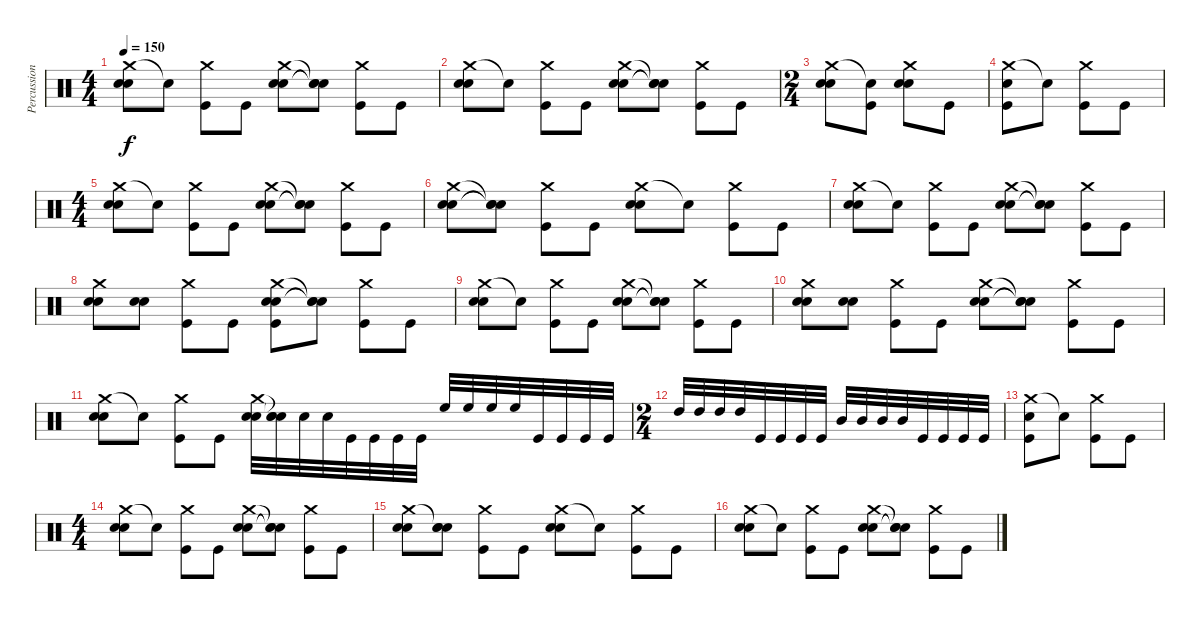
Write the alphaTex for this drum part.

\track ("Percussions" "Percussion") {instrument percussion}
\staff {score}
\articulation defaults
\ts (4 4)
\tempo 150
\clef neutral
\ks c
("Crash medium (hit)" "Electric Snare (hit)" "Electric Snare (hit)").8{dy f} "Snare (hit)"{t}.8 ("Crash medium (hit)" "Kick (hit)").8 "Kick (hit)".8 ("Crash medium (hit)" "Electric Snare (hit)" "Electric Snare (hit)").8 ("Snare (hit)"{t} "Snare (hit)"{t} "Snare (hit)"{t}).8 ("Crash medium (hit)" "Kick (hit)").8 "Kick (hit)".8 |
("Crash medium (hit)" "Electric Snare (hit)" "Electric Snare (hit)").8 "Snare (hit)"{t}.8 ("Crash medium (hit)" "Kick (hit)").8 "Kick (hit)".8 ("Crash medium (hit)" "Electric Snare (hit)" "Electric Snare (hit)").8 ("Snare (hit)"{t} "Snare (hit)"{t} "Snare (hit)"{t}).8 ("Crash medium (hit)" "Kick (hit)").8 "Kick (hit)".8 |
\ts (2 4)
("Crash medium (hit)" "Electric Snare (hit)" "Electric Snare (hit)").8 ("Snare (hit)"{t} "Kick (hit)").8 ("Crash medium (hit)" "Electric Snare (hit)" "Electric Snare (hit)").8 "Kick (hit)".8 |
("Crash medium (hit)" "Electric Snare (hit)" "Kick (hit)").8 "Snare (hit)"{t}.8 ("Crash medium (hit)" "Kick (hit)").8 "Kick (hit)".8 |
\ts (4 4)
("Crash medium (hit)" "Electric Snare (hit)" "Electric Snare (hit)").8 "Snare (hit)"{t}.8 ("Crash medium (hit)" "Kick (hit)").8 "Kick (hit)".8 ("Crash medium (hit)" "Electric Snare (hit)" "Electric Snare (hit)").8 ("Snare (hit)"{t} "Snare (hit)"{t} "Snare (hit)"{t}).8 ("Crash medium (hit)" "Kick (hit)").8 "Kick (hit)".8 |
("Crash medium (hit)" "Electric Snare (hit)" "Electric Snare (hit)").8 ("Snare (hit)"{t} "Electric Snare (hit)"{t} "Electric Snare (hit)"{t}).8 ("Crash medium (hit)" "Kick (hit)").8 "Kick (hit)".8 ("Crash medium (hit)" "Electric Snare (hit)" "Electric Snare (hit)").8 "Snare (hit)"{t}.8 ("Crash medium (hit)" "Kick (hit)").8 "Kick (hit)".8 |
("Crash medium (hit)" "Electric Snare (hit)" "Electric Snare (hit)").8 "Snare (hit)"{t}.8 ("Crash medium (hit)" "Kick (hit)").8 "Kick (hit)".8 ("Crash medium (hit)" "Electric Snare (hit)" "Electric Snare (hit)").8 ("Snare (hit)"{t} "Snare (hit)"{t} "Snare (hit)"{t}).8 ("Crash medium (hit)" "Kick (hit)").8 "Kick (hit)".8 |
("Crash medium (hit)" "Electric Snare (hit)" "Electric Snare (hit)").8 ("Electric Snare (hit)" "Electric Snare (hit)").8 ("Crash medium (hit)" "Kick (hit)").8 "Kick (hit)".8 ("Crash medium (hit)" "Electric Snare (hit)" "Electric Snare (hit)" "Kick (hit)").8 ("Snare (hit)"{t} "Snare (hit)"{t} "Snare (hit)"{t}).8 ("Crash medium (hit)" "Kick (hit)").8 "Kick (hit)".8 |
("Crash medium (hit)" "Electric Snare (hit)" "Electric Snare (hit)").8 "Snare (hit)"{t}.8 ("Crash medium (hit)" "Kick (hit)").8 "Kick (hit)".8 ("Crash medium (hit)" "Electric Snare (hit)" "Electric Snare (hit)").8 ("Snare (hit)"{t} "Snare (hit)"{t} "Snare (hit)"{t}).8 ("Crash medium (hit)" "Kick (hit)").8 "Kick (hit)".8 |
("Crash medium (hit)" "Electric Snare (hit)" "Electric Snare (hit)").8 ("Electric Snare (hit)" "Electric Snare (hit)").8 ("Crash medium (hit)" "Kick (hit)").8 "Kick (hit)".8 ("Crash medium (hit)" "Electric Snare (hit)" "Electric Snare (hit)").8 ("Snare (hit)"{t} "Snare (hit)"{t} "Snare (hit)"{t}).8 ("Crash medium (hit)" "Kick (hit)").8 "Kick (hit)".8 |
("Crash medium (hit)" "Electric Snare (hit)" "Electric Snare (hit)").8 "Snare (hit)"{t}.8 ("Crash medium (hit)" "Kick (hit)").8 "Kick (hit)".8 ("Crash medium (hit)" "Electric Snare (hit)" "Electric Snare (hit)").32 ("Snare (hit)"{t} "Snare (hit)"{t} "Electric Snare (hit)").32 "Electric Snare (hit)".32 "Electric Snare (hit)".32 "Kick (hit)".32{volume 16} "Kick (hit)".32 "Kick (hit)".32 "Kick (hit)".32 "High Floor Tom (hit)".32{volume 12} "High Floor Tom (hit)".32 "High Floor Tom (hit)".32 "High Floor Tom (hit)".32 "Kick (hit)".32 "Kick (hit)".32 "Kick (hit)".32 "Kick (hit)".32 |
\ts (2 4)
"High Tom (hit)".32{volume 12} "High Tom (hit)".32 "High Tom (hit)".32 "High Tom (hit)".32 "Kick (hit)".32{volume 16} "Kick (hit)".32 "Kick (hit)".32 "Kick (hit)".32 "Mid Tom (hit)".32{volume 12} "Mid Tom (hit)".32 "Mid Tom (hit)".32 "Mid Tom (hit)".32 "Kick (hit)".32{volume 16} "Kick (hit)".32 "Kick (hit)".32 "Kick (hit)".32 |
("Crash medium (hit)" "Electric Snare (hit)" "Kick (hit)").8 "Snare (hit)"{t}.8 ("Crash medium (hit)" "Kick (hit)").8 "Kick (hit)".8 |
\ts (4 4)
("Crash medium (hit)" "Electric Snare (hit)" "Electric Snare (hit)").8 "Snare (hit)"{t}.8 ("Crash medium (hit)" "Kick (hit)").8 "Kick (hit)".8 ("Crash medium (hit)" "Electric Snare (hit)" "Electric Snare (hit)").8 ("Snare (hit)"{t} "Electric Snare (hit)"{t} "Electric Snare (hit)"{t}).8 ("Crash medium (hit)" "Kick (hit)").8 "Kick (hit)".8 |
("Crash medium (hit)" "Electric Snare (hit)" "Electric Snare (hit)").8 ("Snare (hit)"{t} "Electric Snare (hit)" "Electric Snare (hit)").8 ("Crash medium (hit)" "Kick (hit)").8 "Kick (hit)".8 ("Crash medium (hit)" "Electric Snare (hit)" "Electric Snare (hit)").8 "Snare (hit)"{t}.8 ("Crash medium (hit)" "Kick (hit)").8 "Kick (hit)".8 |
("Crash medium (hit)" "Electric Snare (hit)" "Electric Snare (hit)").8 "Snare (hit)"{t}.8 ("Crash medium (hit)" "Kick (hit)").8 "Kick (hit)".8 ("Crash medium (hit)" "Electric Snare (hit)" "Electric Snare (hit)").8 ("Snare (hit)"{t} "Snare (hit)"{t} "Snare (hit)"{t}).8 ("Crash medium (hit)" "Kick (hit)").8 "Kick (hit)".8
